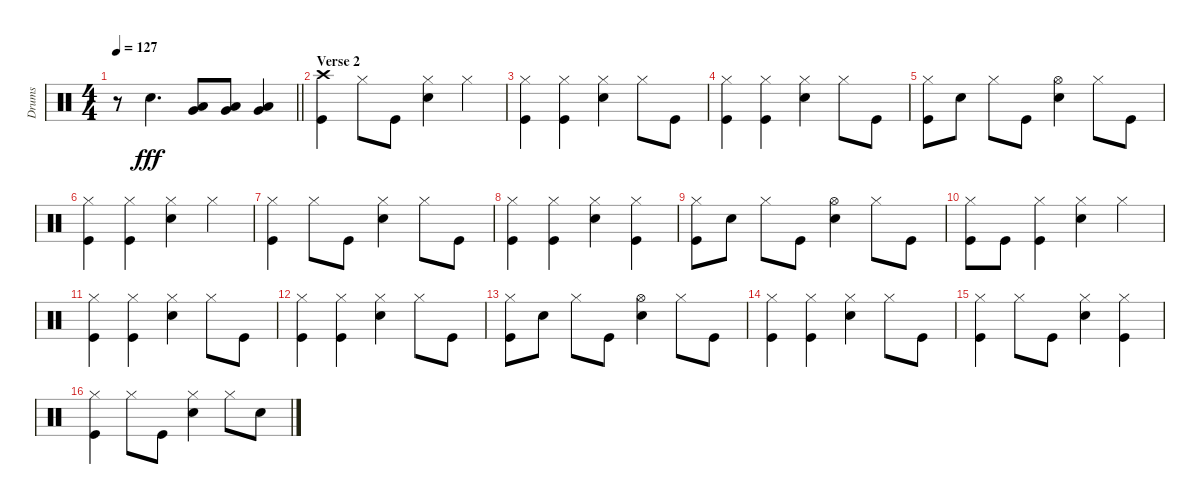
\track ("Drums" "Drums") {instrument percussion}
\staff {score}
\articulation defaults
\ts (4 4)
\tempo 127
\clef neutral
\barLineRight lightlight
\ks c
r.8{dy fff} "Snare (hit) 2".4{d} ("Low Floor Tom (hit)" "Very Low Tom (hit)").8 ("Low Floor Tom (hit)" "Very Low Tom (hit)").8 ("Low Floor Tom (hit)" "Very Low Tom (hit)").4 |
\section ("" "Verse 2")
("Kick (hit)" "Crash high (hit)").4 "Hi-Hat (closed)".8 "Kick (hit)".8 ("Snare (hit) 2" "Hi-Hat (closed)").4 "Hi-Hat (closed)".4 |
("Kick (hit)" "Hi-Hat (closed)").4 ("Kick (hit)" "Hi-Hat (closed)").4 ("Snare (hit) 2" "Hi-Hat (closed)").4 "Hi-Hat (closed)".8 "Kick (hit)".8 |
("Kick (hit)" "Hi-Hat (closed)").4 ("Kick (hit)" "Hi-Hat (closed)").4 ("Snare (hit) 2" "Hi-Hat (closed)").4 "Hi-Hat (closed)".8 "Kick (hit)".8 |
("Kick (hit)" "Hi-Hat (closed)").8 "Snare (hit) 2".8 "Hi-Hat (closed)".8 "Kick (hit)".8 ("Snare (hit) 2" "Hi-Hat (open)").4 "Hi-Hat (closed)".8 "Kick (hit)".8 |
("Kick (hit)" "Hi-Hat (closed)").4 ("Kick (hit)" "Hi-Hat (closed)").4 ("Snare (hit) 2" "Hi-Hat (closed)").4 "Hi-Hat (closed)".4 |
("Kick (hit)" "Hi-Hat (closed)").4 "Hi-Hat (closed)".8 "Kick (hit)".8 ("Snare (hit) 2" "Hi-Hat (closed)").4 "Hi-Hat (closed)".8 "Kick (hit)".8 |
("Kick (hit)" "Hi-Hat (closed)").4 ("Kick (hit)" "Hi-Hat (closed)").4 ("Snare (hit) 2" "Hi-Hat (closed)").4 ("Kick (hit)" "Hi-Hat (closed)").4 |
("Kick (hit)" "Hi-Hat (closed)").8 "Snare (hit) 2".8 "Hi-Hat (closed)".8 "Kick (hit)".8 ("Snare (hit) 2" "Hi-Hat (open)").4 "Hi-Hat (closed)".8 "Kick (hit)".8 |
("Kick (hit)" "Hi-Hat (closed)").8 "Kick (hit)".8 ("Kick (hit)" "Hi-Hat (closed)").4 ("Snare (hit) 2" "Hi-Hat (closed)").4 "Hi-Hat (closed)".4 |
("Kick (hit)" "Hi-Hat (closed)").4 ("Kick (hit)" "Hi-Hat (closed)").4 ("Snare (hit) 2" "Hi-Hat (closed)").4 "Hi-Hat (closed)".8 "Kick (hit)".8 |
("Kick (hit)" "Hi-Hat (closed)").4 ("Kick (hit)" "Hi-Hat (closed)").4 ("Snare (hit) 2" "Hi-Hat (closed)").4 "Hi-Hat (closed)".8 "Kick (hit)".8 |
("Kick (hit)" "Hi-Hat (closed)").8 "Snare (hit) 2".8 "Hi-Hat (closed)".8 "Kick (hit)".8 ("Snare (hit) 2" "Hi-Hat (open)").4 "Hi-Hat (closed)".8 "Kick (hit)".8 |
("Kick (hit)" "Hi-Hat (closed)").4 ("Kick (hit)" "Hi-Hat (closed)").4 ("Snare (hit) 2" "Hi-Hat (closed)").4 "Hi-Hat (closed)".8 "Kick (hit)".8 |
("Kick (hit)" "Hi-Hat (closed)").4 "Hi-Hat (closed)".8 "Kick (hit)".8 ("Snare (hit) 2" "Hi-Hat (closed)").4 ("Kick (hit)" "Hi-Hat (closed)").4 |
("Kick (hit)" "Hi-Hat (closed)").4 "Hi-Hat (closed)".8 "Kick (hit)".8 ("Snare (hit) 2" "Hi-Hat (closed)").4 "Hi-Hat (closed)".8 "Snare (hit) 2".8
